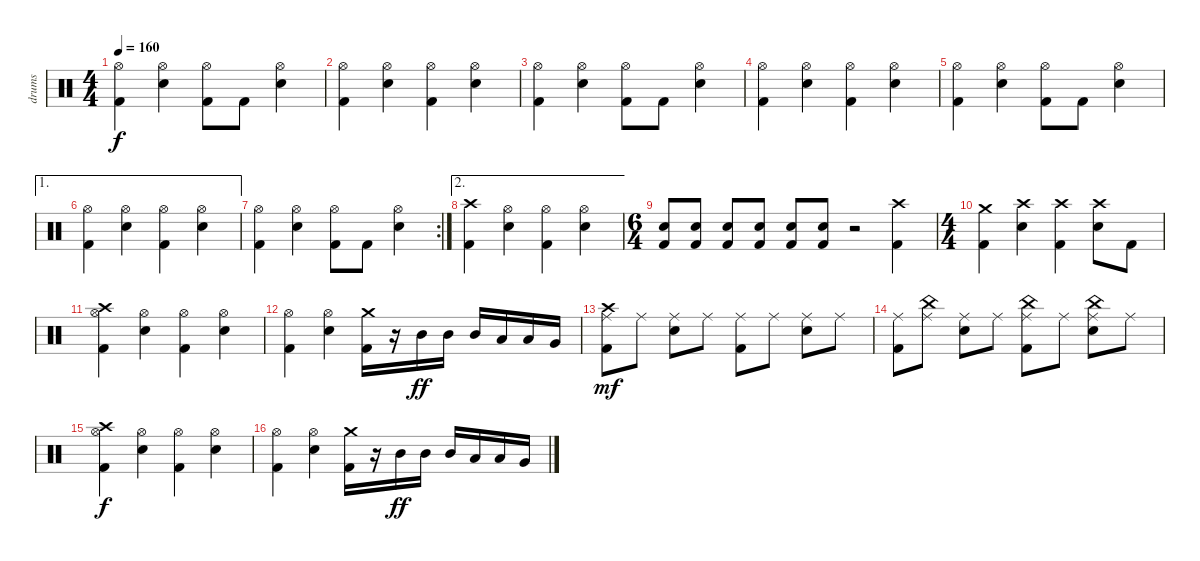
\track ("drums" "drums") {instrument percussion}
\staff {score}
\articulation defaults
\ts (4 4)
\tempo 160
\clef neutral
\ks c
("Kick (hit) 2" "Hi-Hat (open)").4{dy f} ("Hi-Hat (open)" "Snare (hit) 2").4 ("Kick (hit) 2" "Hi-Hat (open)").8 "Kick (hit) 2".8 ("Hi-Hat (open)" "Snare (hit) 2").4 |
("Kick (hit) 2" "Hi-Hat (open)").4 ("Hi-Hat (open)" "Snare (hit) 2").4 ("Kick (hit) 2" "Hi-Hat (open)").4 ("Hi-Hat (open)" "Snare (hit) 2").4 |
("Kick (hit) 2" "Hi-Hat (open)").4 ("Hi-Hat (open)" "Snare (hit) 2").4 ("Kick (hit) 2" "Hi-Hat (open)").8 "Kick (hit) 2".8 ("Hi-Hat (open)" "Snare (hit) 2").4 |
("Kick (hit) 2" "Hi-Hat (open)").4 ("Hi-Hat (open)" "Snare (hit) 2").4 ("Kick (hit) 2" "Hi-Hat (open)").4 ("Hi-Hat (open)" "Snare (hit) 2").4 |
("Kick (hit) 2" "Hi-Hat (open)").4 ("Hi-Hat (open)" "Snare (hit) 2").4 ("Kick (hit) 2" "Hi-Hat (open)").8 "Kick (hit) 2".8 ("Hi-Hat (open)" "Snare (hit) 2").4 |
\ae 1
("Kick (hit) 2" "Hi-Hat (open)").4 ("Hi-Hat (open)" "Snare (hit) 2").4 ("Kick (hit) 2" "Hi-Hat (open)").4 ("Hi-Hat (open)" "Snare (hit) 2").4 |
\rc 2
("Kick (hit) 2" "Hi-Hat (open)").4 ("Hi-Hat (open)" "Snare (hit) 2").4 ("Kick (hit) 2" "Hi-Hat (open)").8 "Kick (hit) 2".8 ("Hi-Hat (open)" "Snare (hit) 2").4 |
\ae 2
("Kick (hit) 2" "Crash high (hit)").4 ("Hi-Hat (open)" "Snare (hit) 2").4 ("Kick (hit) 2" "Hi-Hat (open)").4 ("Hi-Hat (open)" "Snare (hit) 2").4 |
\ts (6 4)
("Kick (hit) 2" "Snare (hit) 2").8 ("Kick (hit) 2" "Snare (hit) 2").8 ("Kick (hit) 2" "Snare (hit) 2").8 ("Kick (hit) 2" "Snare (hit) 2").8 ("Kick (hit) 2" "Snare (hit) 2").8 ("Kick (hit) 2" "Snare (hit) 2").8 r.2 ("Kick (hit) 2" "Crash high (hit)").4 |
\ts (4 4)
("Kick (hit) 2" "Crash medium (hit)").4 ("Crash high (hit)" "Snare (hit) 2").4 ("Kick (hit) 2" "Crash high (hit)").4 ("Crash high (hit)" "Snare (hit) 2").8 "Kick (hit) 2".8 |
("Kick (hit) 2" "Crash high (hit)" "Hi-Hat (open)").4 ("Hi-Hat (open)" "Snare (hit) 2").4 ("Kick (hit) 2" "Hi-Hat (open)").4 ("Hi-Hat (open)" "Snare (hit) 2").4 |
("Kick (hit) 2" "Hi-Hat (open)").4 ("Hi-Hat (open)" "Snare (hit) 2").4 ("Kick (hit) 2" "Crash medium (hit)").16 r.16 "Mid Tom (hit)".16{dy ff} "Mid Tom (hit)".16 "Mid Tom (hit)".16 "Low Tom (hit)".16 "Low Tom (hit)".16 "Very Low Tom (hit)".16 |
("Kick (hit) 2" "Crash high (hit)" "Ride (middle)").8{dy mf} "Ride (middle)".8 ("Ride (middle)" "Snare (hit) 2").8 "Ride (middle)".8 ("Kick (hit) 2" "Ride (middle)").8 "Ride (middle)".8 ("Ride (middle)" "Snare (hit) 2").8 "Ride (middle)".8 |
("Kick (hit) 2" "Ride (middle)").8 ("China (hit)" "Ride (middle)").8 ("Ride (middle)" "Snare (hit) 2").8 "Ride (middle)".8 ("Kick (hit) 2" "China (hit)" "Ride (middle)").8 "Ride (middle)".8 ("China (hit)" "Ride (middle)" "Snare (hit) 2").8 "Ride (middle)".8 |
("Kick (hit) 2" "Crash high (hit)" "Hi-Hat (open)").4{dy f} ("Hi-Hat (open)" "Snare (hit) 2").4 ("Kick (hit) 2" "Hi-Hat (open)").4 ("Hi-Hat (open)" "Snare (hit) 2").4 |
("Kick (hit) 2" "Hi-Hat (open)").4 ("Hi-Hat (open)" "Snare (hit) 2").4 ("Kick (hit) 2" "Crash medium (hit)").16 r.16 "Mid Tom (hit)".16{dy ff} "Mid Tom (hit)".16 "Mid Tom (hit)".16 "Low Tom (hit)".16 "Low Tom (hit)".16 "Very Low Tom (hit)".16
